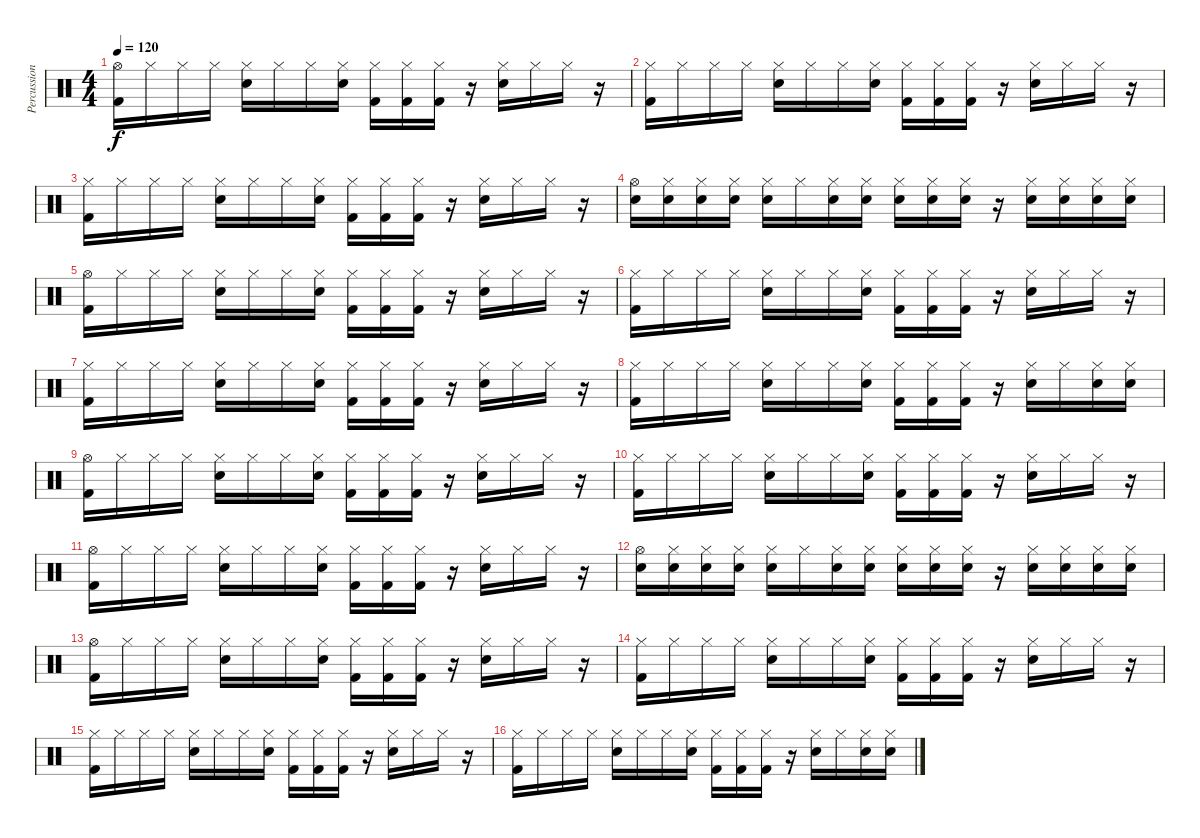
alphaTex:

\track ("Percussion" "Percussion") {instrument percussion}
\staff {score}
\articulation defaults
\ts (4 4)
\tempo 120
\clef neutral
\ks c
("Hi-Hat (open)" "Kick (hit) 2").16{dy f} "Hi-Hat (closed)".16 "Hi-Hat (closed)".16 "Hi-Hat (closed)".16 ("Hi-Hat (closed)" "Snare (hit) 2").16 "Hi-Hat (closed)".16 "Hi-Hat (closed)".16 ("Hi-Hat (closed)" "Snare (hit) 2").16 ("Hi-Hat (closed)" "Kick (hit) 2").16 ("Hi-Hat (closed)" "Kick (hit) 2").16 ("Hi-Hat (closed)" "Kick (hit) 2").16 r.16 ("Hi-Hat (closed)" "Snare (hit) 2").16 "Hi-Hat (closed)".16 "Hi-Hat (closed)".16 r.16 |
("Hi-Hat (closed)" "Kick (hit) 2").16 "Hi-Hat (closed)".16 "Hi-Hat (closed)".16 "Hi-Hat (closed)".16 ("Hi-Hat (closed)" "Snare (hit) 2").16 "Hi-Hat (closed)".16 "Hi-Hat (closed)".16 ("Hi-Hat (closed)" "Snare (hit) 2").16 ("Hi-Hat (closed)" "Kick (hit) 2").16 ("Hi-Hat (closed)" "Kick (hit) 2").16 ("Hi-Hat (closed)" "Kick (hit) 2").16 r.16 ("Hi-Hat (closed)" "Snare (hit) 2").16 "Hi-Hat (closed)".16 "Hi-Hat (closed)".16 r.16 |
("Hi-Hat (closed)" "Kick (hit) 2").16 "Hi-Hat (closed)".16 "Hi-Hat (closed)".16 "Hi-Hat (closed)".16 ("Hi-Hat (closed)" "Snare (hit) 2").16 "Hi-Hat (closed)".16 "Hi-Hat (closed)".16 ("Hi-Hat (closed)" "Snare (hit) 2").16 ("Hi-Hat (closed)" "Kick (hit) 2").16 ("Hi-Hat (closed)" "Kick (hit) 2").16 ("Hi-Hat (closed)" "Kick (hit) 2").16 r.16 ("Hi-Hat (closed)" "Snare (hit) 2").16 "Hi-Hat (closed)".16 "Hi-Hat (closed)".16 r.16 |
("Hi-Hat (open)" "Snare (hit) 2").16 ("Hi-Hat (closed)" "Snare (hit) 2").16 ("Hi-Hat (closed)" "Snare (hit) 2").16 ("Hi-Hat (closed)" "Snare (hit) 2").16 ("Hi-Hat (closed)" "Snare (hit) 2").16 "Hi-Hat (closed)".16 ("Hi-Hat (closed)" "Snare (hit) 2").16 ("Hi-Hat (closed)" "Snare (hit) 2").16 ("Hi-Hat (closed)" "Snare (hit) 2").16 ("Hi-Hat (closed)" "Snare (hit) 2").16 ("Hi-Hat (closed)" "Snare (hit) 2").16 r.16 ("Hi-Hat (closed)" "Snare (hit) 2").16 ("Hi-Hat (closed)" "Snare (hit) 2").16 ("Hi-Hat (closed)" "Snare (hit) 2").16 ("Hi-Hat (closed)" "Snare (hit) 2").16 |
("Hi-Hat (open)" "Kick (hit) 2").16 "Hi-Hat (closed)".16 "Hi-Hat (closed)".16 "Hi-Hat (closed)".16 ("Hi-Hat (closed)" "Snare (hit) 2").16 "Hi-Hat (closed)".16 "Hi-Hat (closed)".16 ("Hi-Hat (closed)" "Snare (hit) 2").16 ("Hi-Hat (closed)" "Kick (hit) 2").16 ("Hi-Hat (closed)" "Kick (hit) 2").16 ("Hi-Hat (closed)" "Kick (hit) 2").16 r.16 ("Hi-Hat (closed)" "Snare (hit) 2").16 "Hi-Hat (closed)".16 "Hi-Hat (closed)".16 r.16 |
("Hi-Hat (closed)" "Kick (hit) 2").16 "Hi-Hat (closed)".16 "Hi-Hat (closed)".16 "Hi-Hat (closed)".16 ("Hi-Hat (closed)" "Snare (hit) 2").16 "Hi-Hat (closed)".16 "Hi-Hat (closed)".16 ("Hi-Hat (closed)" "Snare (hit) 2").16 ("Hi-Hat (closed)" "Kick (hit) 2").16 ("Hi-Hat (closed)" "Kick (hit) 2").16 ("Hi-Hat (closed)" "Kick (hit) 2").16 r.16 ("Hi-Hat (closed)" "Snare (hit) 2").16 "Hi-Hat (closed)".16 "Hi-Hat (closed)".16 r.16 |
("Hi-Hat (closed)" "Kick (hit) 2").16 "Hi-Hat (closed)".16 "Hi-Hat (closed)".16 "Hi-Hat (closed)".16 ("Hi-Hat (closed)" "Snare (hit) 2").16 "Hi-Hat (closed)".16 "Hi-Hat (closed)".16 ("Hi-Hat (closed)" "Snare (hit) 2").16 ("Hi-Hat (closed)" "Kick (hit) 2").16 ("Hi-Hat (closed)" "Kick (hit) 2").16 ("Hi-Hat (closed)" "Kick (hit) 2").16 r.16 ("Hi-Hat (closed)" "Snare (hit) 2").16 "Hi-Hat (closed)".16 "Hi-Hat (closed)".16 r.16 |
("Hi-Hat (closed)" "Kick (hit) 2").16 "Hi-Hat (closed)".16 "Hi-Hat (closed)".16 "Hi-Hat (closed)".16 ("Hi-Hat (closed)" "Snare (hit) 2").16 "Hi-Hat (closed)".16 "Hi-Hat (closed)".16 ("Hi-Hat (closed)" "Snare (hit) 2").16 ("Hi-Hat (closed)" "Kick (hit) 2").16 ("Hi-Hat (closed)" "Kick (hit) 2").16 ("Hi-Hat (closed)" "Kick (hit) 2").16 r.16 ("Hi-Hat (closed)" "Snare (hit) 2").16 "Hi-Hat (closed)".16 ("Hi-Hat (closed)" "Snare (hit) 2").16 ("Hi-Hat (closed)" "Snare (hit) 2").16 |
("Hi-Hat (open)" "Kick (hit) 2").16 "Hi-Hat (closed)".16 "Hi-Hat (closed)".16 "Hi-Hat (closed)".16 ("Hi-Hat (closed)" "Snare (hit) 2").16 "Hi-Hat (closed)".16 "Hi-Hat (closed)".16 ("Hi-Hat (closed)" "Snare (hit) 2").16 ("Hi-Hat (closed)" "Kick (hit) 2").16 ("Hi-Hat (closed)" "Kick (hit) 2").16 ("Hi-Hat (closed)" "Kick (hit) 2").16 r.16 ("Hi-Hat (closed)" "Snare (hit) 2").16 "Hi-Hat (closed)".16 "Hi-Hat (closed)".16 r.16 |
("Hi-Hat (closed)" "Kick (hit) 2").16 "Hi-Hat (closed)".16 "Hi-Hat (closed)".16 "Hi-Hat (closed)".16 ("Hi-Hat (closed)" "Snare (hit) 2").16 "Hi-Hat (closed)".16 "Hi-Hat (closed)".16 ("Hi-Hat (closed)" "Snare (hit) 2").16 ("Hi-Hat (closed)" "Kick (hit) 2").16 ("Hi-Hat (closed)" "Kick (hit) 2").16 ("Hi-Hat (closed)" "Kick (hit) 2").16 r.16 ("Hi-Hat (closed)" "Snare (hit) 2").16 "Hi-Hat (closed)".16 "Hi-Hat (closed)".16 r.16 |
("Hi-Hat (open)" "Kick (hit) 2").16 "Hi-Hat (closed)".16 "Hi-Hat (closed)".16 "Hi-Hat (closed)".16 ("Hi-Hat (closed)" "Snare (hit) 2").16 "Hi-Hat (closed)".16 "Hi-Hat (closed)".16 ("Hi-Hat (closed)" "Snare (hit) 2").16 ("Hi-Hat (closed)" "Kick (hit) 2").16 ("Hi-Hat (closed)" "Kick (hit) 2").16 ("Hi-Hat (closed)" "Kick (hit) 2").16 r.16 ("Hi-Hat (closed)" "Snare (hit) 2").16 "Hi-Hat (closed)".16 "Hi-Hat (closed)".16 r.16 |
("Hi-Hat (open)" "Snare (hit) 2").16 ("Hi-Hat (closed)" "Snare (hit) 2").16 ("Hi-Hat (closed)" "Snare (hit) 2").16 ("Hi-Hat (closed)" "Snare (hit) 2").16 ("Hi-Hat (closed)" "Snare (hit) 2").16 "Hi-Hat (closed)".16 ("Hi-Hat (closed)" "Snare (hit) 2").16 ("Hi-Hat (closed)" "Snare (hit) 2").16 ("Hi-Hat (closed)" "Snare (hit) 2").16 ("Hi-Hat (closed)" "Snare (hit) 2").16 ("Hi-Hat (closed)" "Snare (hit) 2").16 r.16 ("Hi-Hat (closed)" "Snare (hit) 2").16 ("Hi-Hat (closed)" "Snare (hit) 2").16 ("Hi-Hat (closed)" "Snare (hit) 2").16 ("Hi-Hat (closed)" "Snare (hit) 2").16 |
("Hi-Hat (open)" "Kick (hit) 2").16 "Hi-Hat (closed)".16 "Hi-Hat (closed)".16 "Hi-Hat (closed)".16 ("Hi-Hat (closed)" "Snare (hit) 2").16 "Hi-Hat (closed)".16 "Hi-Hat (closed)".16 ("Hi-Hat (closed)" "Snare (hit) 2").16 ("Hi-Hat (closed)" "Kick (hit) 2").16 ("Hi-Hat (closed)" "Kick (hit) 2").16 ("Hi-Hat (closed)" "Kick (hit) 2").16 r.16 ("Hi-Hat (closed)" "Snare (hit) 2").16 "Hi-Hat (closed)".16 "Hi-Hat (closed)".16 r.16 |
("Hi-Hat (closed)" "Kick (hit) 2").16 "Hi-Hat (closed)".16 "Hi-Hat (closed)".16 "Hi-Hat (closed)".16 ("Hi-Hat (closed)" "Snare (hit) 2").16 "Hi-Hat (closed)".16 "Hi-Hat (closed)".16 ("Hi-Hat (closed)" "Snare (hit) 2").16 ("Hi-Hat (closed)" "Kick (hit) 2").16 ("Hi-Hat (closed)" "Kick (hit) 2").16 ("Hi-Hat (closed)" "Kick (hit) 2").16 r.16 ("Hi-Hat (closed)" "Snare (hit) 2").16 "Hi-Hat (closed)".16 "Hi-Hat (closed)".16 r.16 |
("Hi-Hat (closed)" "Kick (hit) 2").16 "Hi-Hat (closed)".16 "Hi-Hat (closed)".16 "Hi-Hat (closed)".16 ("Hi-Hat (closed)" "Snare (hit) 2").16 "Hi-Hat (closed)".16 "Hi-Hat (closed)".16 ("Hi-Hat (closed)" "Snare (hit) 2").16 ("Hi-Hat (closed)" "Kick (hit) 2").16 ("Hi-Hat (closed)" "Kick (hit) 2").16 ("Hi-Hat (closed)" "Kick (hit) 2").16 r.16 ("Hi-Hat (closed)" "Snare (hit) 2").16 "Hi-Hat (closed)".16 "Hi-Hat (closed)".16 r.16 |
("Hi-Hat (closed)" "Kick (hit) 2").16 "Hi-Hat (closed)".16 "Hi-Hat (closed)".16 "Hi-Hat (closed)".16 ("Hi-Hat (closed)" "Snare (hit) 2").16 "Hi-Hat (closed)".16 "Hi-Hat (closed)".16 ("Hi-Hat (closed)" "Snare (hit) 2").16 ("Hi-Hat (closed)" "Kick (hit) 2").16 ("Hi-Hat (closed)" "Kick (hit) 2").16 ("Hi-Hat (closed)" "Kick (hit) 2").16 r.16 ("Hi-Hat (closed)" "Snare (hit) 2").16 "Hi-Hat (closed)".16 ("Hi-Hat (closed)" "Snare (hit) 2").16 ("Hi-Hat (closed)" "Snare (hit) 2").16
